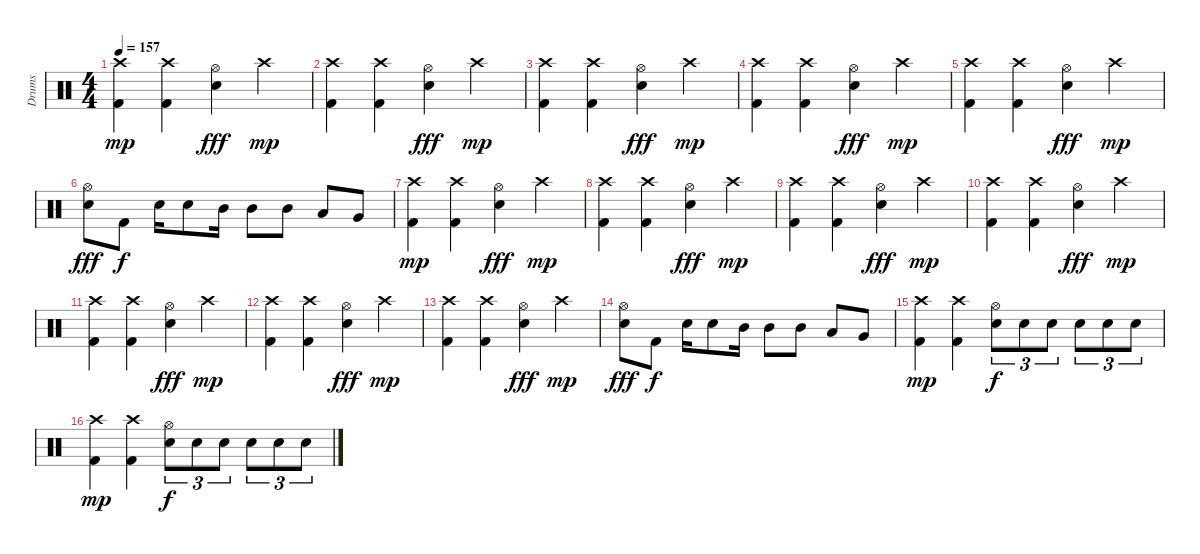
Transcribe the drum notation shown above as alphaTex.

\track ("Drums" "Drums") {instrument percussion}
\staff {score}
\articulation defaults
\ts (4 4)
\tempo 157
\clef neutral
\ks c
("Crash high (hit)" "Kick (hit) 2").4{dy mp} ("Crash high (hit)" "Kick (hit) 2").4 ("Hi-Hat (open)" "Snare (hit) 2").4{dy fff} "Crash high (hit)".4{dy mp} |
("Crash high (hit)" "Kick (hit) 2").4 ("Crash high (hit)" "Kick (hit) 2").4 ("Hi-Hat (open)" "Snare (hit) 2").4{dy fff} "Crash high (hit)".4{dy mp} |
("Crash high (hit)" "Kick (hit) 2").4 ("Crash high (hit)" "Kick (hit) 2").4 ("Hi-Hat (open)" "Snare (hit) 2").4{dy fff} "Crash high (hit)".4{dy mp} |
("Crash high (hit)" "Kick (hit) 2").4 ("Crash high (hit)" "Kick (hit) 2").4 ("Hi-Hat (open)" "Snare (hit) 2").4{dy fff} "Crash high (hit)".4{dy mp} |
("Crash high (hit)" "Kick (hit) 2").4 ("Crash high (hit)" "Kick (hit) 2").4 ("Hi-Hat (open)" "Snare (hit) 2").4{dy fff} "Crash high (hit)".4{dy mp} |
("Hi-Hat (open)" "Snare (hit) 2").8{dy fff} "Kick (hit) 2".8{dy f} "Snare (hit) 2".16 "Snare (hit) 2".8 "Mid Tom (hit)".16 "Mid Tom (hit)".8 "Mid Tom (hit)".8 "Low Tom (hit)".8 "Very Low Tom (hit)".8 |
("Crash high (hit)" "Kick (hit) 2").4{dy mp} ("Crash high (hit)" "Kick (hit) 2").4 ("Hi-Hat (open)" "Snare (hit) 2").4{dy fff} "Crash high (hit)".4{dy mp} |
("Crash high (hit)" "Kick (hit) 2").4 ("Crash high (hit)" "Kick (hit) 2").4 ("Hi-Hat (open)" "Snare (hit) 2").4{dy fff} "Crash high (hit)".4{dy mp} |
("Crash high (hit)" "Kick (hit) 2").4 ("Crash high (hit)" "Kick (hit) 2").4 ("Hi-Hat (open)" "Snare (hit) 2").4{dy fff} "Crash high (hit)".4{dy mp} |
("Crash high (hit)" "Kick (hit) 2").4 ("Crash high (hit)" "Kick (hit) 2").4 ("Hi-Hat (open)" "Snare (hit) 2").4{dy fff} "Crash high (hit)".4{dy mp} |
("Crash high (hit)" "Kick (hit) 2").4 ("Crash high (hit)" "Kick (hit) 2").4 ("Hi-Hat (open)" "Snare (hit) 2").4{dy fff} "Crash high (hit)".4{dy mp} |
("Crash high (hit)" "Kick (hit) 2").4 ("Crash high (hit)" "Kick (hit) 2").4 ("Hi-Hat (open)" "Snare (hit) 2").4{dy fff} "Crash high (hit)".4{dy mp} |
("Crash high (hit)" "Kick (hit) 2").4 ("Crash high (hit)" "Kick (hit) 2").4 ("Hi-Hat (open)" "Snare (hit) 2").4{dy fff} "Crash high (hit)".4{dy mp} |
("Hi-Hat (open)" "Snare (hit) 2").8{dy fff} "Kick (hit) 2".8{dy f} "Snare (hit) 2".16 "Snare (hit) 2".8 "Mid Tom (hit)".16 "Mid Tom (hit)".8 "Mid Tom (hit)".8 "Low Tom (hit)".8 "Very Low Tom (hit)".8 |
("Crash high (hit)" "Kick (hit) 2").4{dy mp} ("Crash high (hit)" "Kick (hit) 2").4 ("Hi-Hat (open)" "Snare (hit) 2").8{tu (3 2) dy f} "Snare (hit) 2".8{tu (3 2)} "Snare (hit) 2".8{tu (3 2)} "Snare (hit) 2".8{tu (3 2)} "Snare (hit) 2".8{tu (3 2)} "Snare (hit) 2".8{tu (3 2)} |
("Crash high (hit)" "Kick (hit) 2").4{dy mp} ("Crash high (hit)" "Kick (hit) 2").4 ("Hi-Hat (open)" "Snare (hit) 2").8{tu (3 2) dy f} "Snare (hit) 2".8{tu (3 2)} "Snare (hit) 2".8{tu (3 2)} "Snare (hit) 2".8{tu (3 2)} "Snare (hit) 2".8{tu (3 2)} "Snare (hit) 2".8{tu (3 2)}
